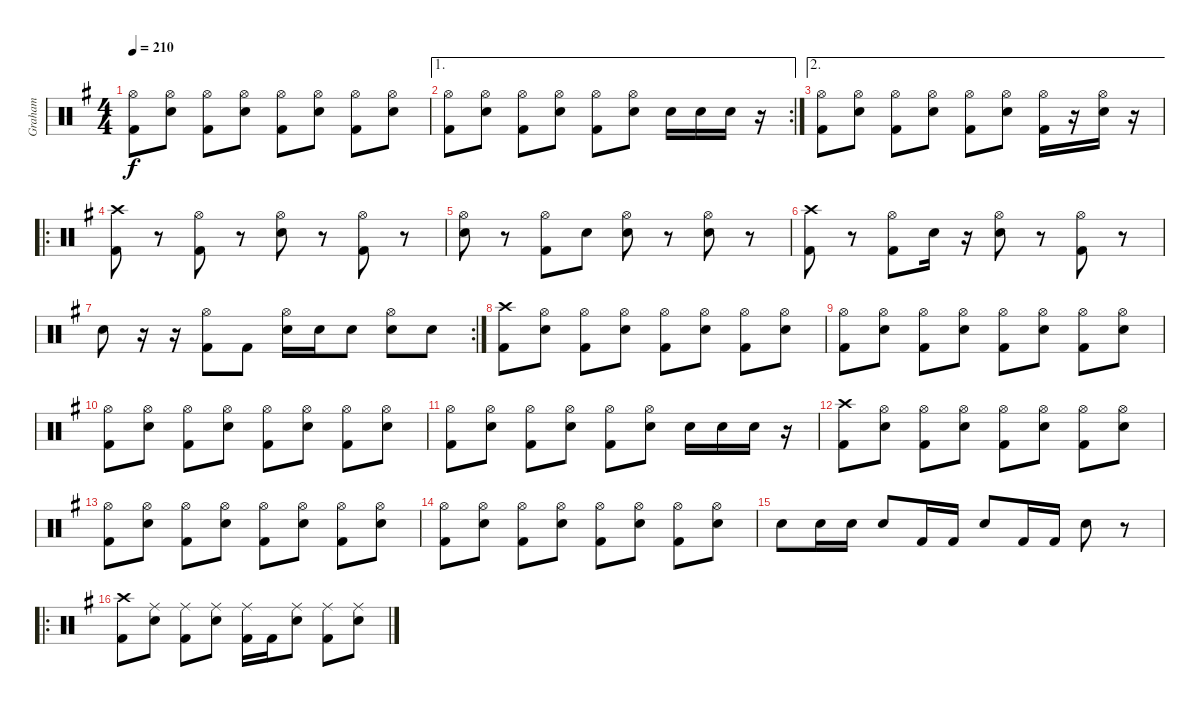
\track ("Graham" "Graham") {instrument percussion}
\staff {score}
\articulation defaults
\ts (4 4)
\tempo 210
\clef neutral
\ks g
("Hi-Hat (open)" "Kick (hit) 2").8{dy f} ("Hi-Hat (open)" "Electric Snare (hit)").8 ("Hi-Hat (open)" "Kick (hit) 2").8 ("Hi-Hat (open)" "Electric Snare (hit)").8 ("Hi-Hat (open)" "Kick (hit) 2").8 ("Hi-Hat (open)" "Electric Snare (hit)").8 ("Hi-Hat (open)" "Kick (hit) 2").8 ("Hi-Hat (open)" "Electric Snare (hit)").8 |
\ae 1
\rc 2
("Hi-Hat (open)" "Kick (hit) 2").8 ("Hi-Hat (open)" "Electric Snare (hit)").8 ("Hi-Hat (open)" "Kick (hit) 2").8 ("Hi-Hat (open)" "Electric Snare (hit)").8 ("Hi-Hat (open)" "Kick (hit) 2").8 ("Hi-Hat (open)" "Electric Snare (hit)").8 "Electric Snare (hit)".16 "Electric Snare (hit)".16 "Electric Snare (hit)".16 r.16 |
\ae 2
("Hi-Hat (open)" "Kick (hit) 2").8 ("Hi-Hat (open)" "Electric Snare (hit)").8 ("Hi-Hat (open)" "Kick (hit) 2").8 ("Hi-Hat (open)" "Electric Snare (hit)").8 ("Hi-Hat (open)" "Kick (hit) 2").8 ("Hi-Hat (open)" "Electric Snare (hit)").8 ("Hi-Hat (open)" "Kick (hit) 2").16 r.16 ("Hi-Hat (open)" "Electric Snare (hit)").16 r.16 |
\ro
("Crash high (hit)" "Kick (hit) 2").8 r.8 ("Hi-Hat (open)" "Kick (hit) 2").8 r.8 ("Hi-Hat (open)" "Electric Snare (hit)").8 r.8 ("Hi-Hat (open)" "Kick (hit) 2").8 r.8 |
("Hi-Hat (open)" "Electric Snare (hit)").8 r.8 ("Hi-Hat (open)" "Kick (hit) 2").8 "Electric Snare (hit)".8 ("Hi-Hat (open)" "Electric Snare (hit)").8 r.8 ("Hi-Hat (open)" "Electric Snare (hit)").8 r.8 |
("Crash high (hit)" "Kick (hit) 2").8 r.8 ("Hi-Hat (open)" "Kick (hit) 2").8 "Electric Snare (hit)".16 r.16 ("Hi-Hat (open)" "Electric Snare (hit)").8 r.8 ("Hi-Hat (open)" "Kick (hit) 2").8 r.8 |
\rc 2 "Electric Snare (hit)".8
r.16 r.16 ("Hi-Hat (open)" "Kick (hit) 2").8 "Kick (hit) 2".8 ("Hi-Hat (open)" "Electric Snare (hit)").16 "Electric Snare (hit)".16 "Electric Snare (hit)".8 ("Hi-Hat (open)" "Electric Snare (hit)").8 "Electric Snare (hit)".8 |
("Crash high (hit)" "Kick (hit) 2").8 ("Hi-Hat (open)" "Electric Snare (hit)").8 ("Hi-Hat (open)" "Kick (hit) 2").8 ("Hi-Hat (open)" "Electric Snare (hit)").8 ("Hi-Hat (open)" "Kick (hit) 2").8 ("Hi-Hat (open)" "Electric Snare (hit)").8 ("Hi-Hat (open)" "Kick (hit) 2").8 ("Hi-Hat (open)" "Electric Snare (hit)").8 |
("Hi-Hat (open)" "Kick (hit) 2").8 ("Hi-Hat (open)" "Electric Snare (hit)").8 ("Hi-Hat (open)" "Kick (hit) 2").8 ("Hi-Hat (open)" "Electric Snare (hit)").8 ("Hi-Hat (open)" "Kick (hit) 2").8 ("Hi-Hat (open)" "Electric Snare (hit)").8 ("Hi-Hat (open)" "Kick (hit) 2").8 ("Hi-Hat (open)" "Electric Snare (hit)").8 |
("Hi-Hat (open)" "Kick (hit) 2").8 ("Hi-Hat (open)" "Electric Snare (hit)").8 ("Hi-Hat (open)" "Kick (hit) 2").8 ("Hi-Hat (open)" "Electric Snare (hit)").8 ("Hi-Hat (open)" "Kick (hit) 2").8 ("Hi-Hat (open)" "Electric Snare (hit)").8 ("Hi-Hat (open)" "Kick (hit) 2").8 ("Hi-Hat (open)" "Electric Snare (hit)").8 |
("Hi-Hat (open)" "Kick (hit) 2").8 ("Hi-Hat (open)" "Electric Snare (hit)").8 ("Hi-Hat (open)" "Kick (hit) 2").8 ("Hi-Hat (open)" "Electric Snare (hit)").8 ("Hi-Hat (open)" "Kick (hit) 2").8 ("Hi-Hat (open)" "Electric Snare (hit)").8 "Electric Snare (hit)".16 "Electric Snare (hit)".16 "Electric Snare (hit)".16 r.16 |
("Crash high (hit)" "Kick (hit) 2").8 ("Hi-Hat (open)" "Electric Snare (hit)").8 ("Hi-Hat (open)" "Kick (hit) 2").8 ("Hi-Hat (open)" "Electric Snare (hit)").8 ("Hi-Hat (open)" "Kick (hit) 2").8 ("Hi-Hat (open)" "Electric Snare (hit)").8 ("Hi-Hat (open)" "Kick (hit) 2").8 ("Hi-Hat (open)" "Electric Snare (hit)").8 |
("Hi-Hat (open)" "Kick (hit) 2").8 ("Hi-Hat (open)" "Electric Snare (hit)").8 ("Hi-Hat (open)" "Kick (hit) 2").8 ("Hi-Hat (open)" "Electric Snare (hit)").8 ("Hi-Hat (open)" "Kick (hit) 2").8 ("Hi-Hat (open)" "Electric Snare (hit)").8 ("Hi-Hat (open)" "Kick (hit) 2").8 ("Hi-Hat (open)" "Electric Snare (hit)").8 |
("Hi-Hat (open)" "Kick (hit) 2").8 ("Hi-Hat (open)" "Electric Snare (hit)").8 ("Hi-Hat (open)" "Kick (hit) 2").8 ("Hi-Hat (open)" "Electric Snare (hit)").8 ("Hi-Hat (open)" "Kick (hit) 2").8 ("Hi-Hat (open)" "Electric Snare (hit)").8 ("Hi-Hat (open)" "Kick (hit) 2").8 ("Hi-Hat (open)" "Electric Snare (hit)").8 |
"Electric Snare (hit)".8 "Electric Snare (hit)".16 "Electric Snare (hit)".16 "Electric Snare (hit)".8 "Kick (hit) 2".16 "Kick (hit) 2".16 "Electric Snare (hit)".8 "Kick (hit) 2".16 "Kick (hit) 2".16 "Electric Snare (hit)".8 r.8 |
\ro
("Crash high (hit)" "Kick (hit) 2").8 ("Ride (middle)" "Electric Snare (hit)").8 ("Ride (middle)" "Kick (hit) 2").8 ("Ride (middle)" "Electric Snare (hit)").8 ("Ride (middle)" "Kick (hit) 2").16 "Kick (hit) 2".16 ("Ride (middle)" "Electric Snare (hit)").8 ("Ride (middle)" "Kick (hit) 2").8 ("Ride (middle)" "Electric Snare (hit)").8
